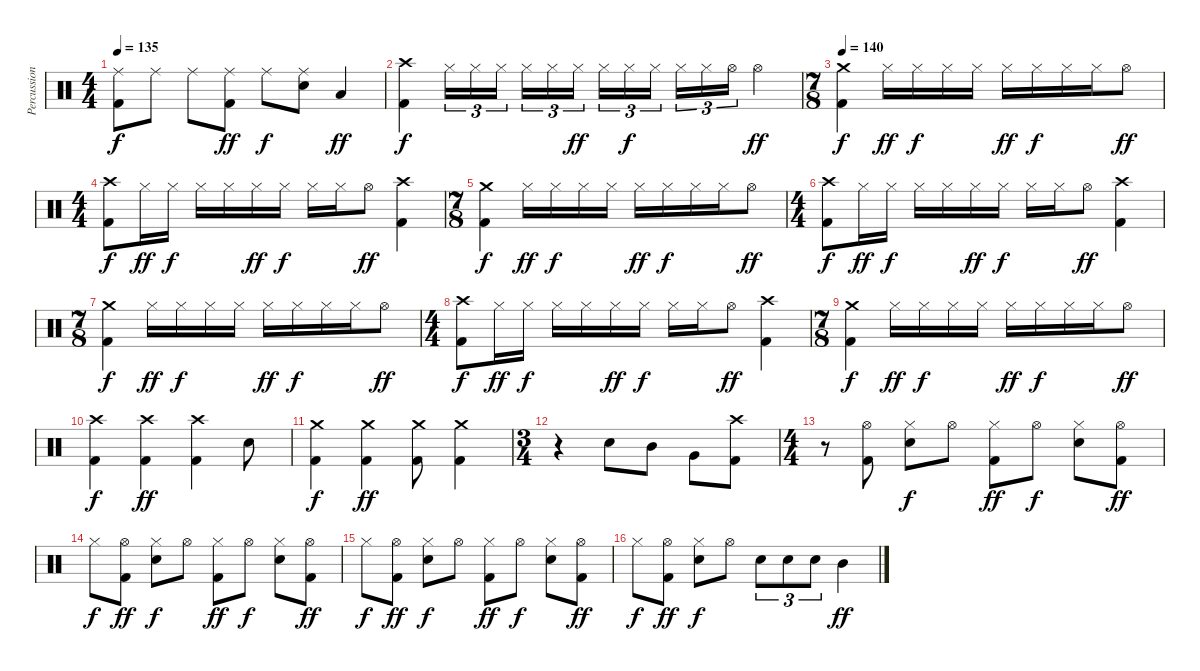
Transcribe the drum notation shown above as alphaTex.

\track ("Percussion" "Percussion") {instrument percussion}
\staff {score}
\articulation defaults
\ts (4 4)
\tempo 135
\clef neutral
\ks c
("Kick (hit) 2" "Ride (middle)").8{dy f} "Ride (middle)".8 "Ride (middle)".8 ("Kick (hit) 2" "Ride (middle)").8{dy ff} "Ride (middle)".8{dy f} ("Snare (hit) 2" "Ride (middle)").8 "Low Tom (hit)".4{dy ff} |
("Kick (hit) 2" "Crash high (hit)").4{dy f} "Hi-Hat (closed)".16{tu (3 2)} "Hi-Hat (closed)".16{tu (3 2)} "Hi-Hat (closed)".16{tu (3 2)} "Hi-Hat (closed)".16{tu (3 2)} "Hi-Hat (closed)".16{tu (3 2)} "Hi-Hat (closed)".16{tu (3 2) dy ff} "Hi-Hat (closed)".16{tu (3 2)} "Hi-Hat (closed)".16{tu (3 2) dy f} "Hi-Hat (closed)".16{tu (3 2)} "Hi-Hat (closed)".16{tu (3 2)} "Hi-Hat (closed)".16{tu (3 2)} "Hi-Hat (open)".16{tu (3 2)} "Hi-Hat (open)".4{dy ff} |
\ts (7 8)
\tempo 140
("Kick (hit) 2" "Crash medium (hit)").4{dy f} "Hi-Hat (closed)".16{dy ff} "Hi-Hat (closed)".16{dy f} "Hi-Hat (closed)".16 "Hi-Hat (closed)".16 "Hi-Hat (closed)".16{dy ff} "Hi-Hat (closed)".16{dy f} "Hi-Hat (closed)".16 "Hi-Hat (closed)".16 "Hi-Hat (open)".8{dy ff} |
\ts (4 4)
("Kick (hit) 2" "Crash high (hit)").8{dy f} "Hi-Hat (closed)".16{dy ff} "Hi-Hat (closed)".16{dy f} "Hi-Hat (closed)".16 "Hi-Hat (closed)".16 "Hi-Hat (closed)".16{dy ff} "Hi-Hat (closed)".16{dy f} "Hi-Hat (closed)".16 "Hi-Hat (closed)".16 "Hi-Hat (open)".8{dy ff} ("Kick (hit) 2" "Crash high (hit)").4 |
\ts (7 8)
("Kick (hit) 2" "Crash medium (hit)").4{dy f} "Hi-Hat (closed)".16{dy ff} "Hi-Hat (closed)".16{dy f} "Hi-Hat (closed)".16 "Hi-Hat (closed)".16 "Hi-Hat (closed)".16{dy ff} "Hi-Hat (closed)".16{dy f} "Hi-Hat (closed)".16 "Hi-Hat (closed)".16 "Hi-Hat (open)".8{dy ff} |
\ts (4 4)
("Kick (hit) 2" "Crash high (hit)").8{dy f} "Hi-Hat (closed)".16{dy ff} "Hi-Hat (closed)".16{dy f} "Hi-Hat (closed)".16 "Hi-Hat (closed)".16 "Hi-Hat (closed)".16{dy ff} "Hi-Hat (closed)".16{dy f} "Hi-Hat (closed)".16 "Hi-Hat (closed)".16 "Hi-Hat (open)".8{dy ff} ("Kick (hit) 2" "Crash high (hit)").4 |
\ts (7 8)
("Kick (hit) 2" "Crash medium (hit)").4{dy f} "Hi-Hat (closed)".16{dy ff} "Hi-Hat (closed)".16{dy f} "Hi-Hat (closed)".16 "Hi-Hat (closed)".16 "Hi-Hat (closed)".16{dy ff} "Hi-Hat (closed)".16{dy f} "Hi-Hat (closed)".16 "Hi-Hat (closed)".16 "Hi-Hat (open)".8{dy ff} |
\ts (4 4)
("Kick (hit) 2" "Crash high (hit)").8{dy f} "Hi-Hat (closed)".16{dy ff} "Hi-Hat (closed)".16{dy f} "Hi-Hat (closed)".16 "Hi-Hat (closed)".16 "Hi-Hat (closed)".16{dy ff} "Hi-Hat (closed)".16{dy f} "Hi-Hat (closed)".16 "Hi-Hat (closed)".16 "Hi-Hat (open)".8{dy ff} ("Crash high (hit)" "Kick (hit) 2").4 |
\ts (7 8)
("Kick (hit) 2" "Crash medium (hit)").4{dy f} "Hi-Hat (closed)".16{dy ff} "Hi-Hat (closed)".16{dy f} "Hi-Hat (closed)".16 "Hi-Hat (closed)".16 "Hi-Hat (closed)".16{dy ff} "Hi-Hat (closed)".16{dy f} "Hi-Hat (closed)".16 "Hi-Hat (closed)".16 "Hi-Hat (open)".8{dy ff} |
("Kick (hit) 2" "Crash high (hit)").4{dy f} ("Kick (hit) 2" "Crash high (hit)").4{dy ff} ("Kick (hit) 2" "Crash high (hit)").4 "Snare (hit) 2".8 |
("Kick (hit) 2" "Crash medium (hit)").4{dy f} ("Kick (hit) 2" "Crash medium (hit)").4{dy ff} ("Kick (hit) 2" "Crash medium (hit)").8 ("Kick (hit) 2" "Crash medium (hit)").4 |
\ts (3 4)
r.4 "Snare (hit) 2".8 "Mid Tom (hit)".8 "Very Low Tom (hit)".8 ("Kick (hit) 2" "Crash high (hit)").8 |
\ts (4 4)
r.8 ("Kick (hit) 2" "Hi-Hat (open)").8 ("Snare (hit) 2" "Hi-Hat (closed)").8{dy f} "Hi-Hat (open)".8 ("Kick (hit) 2" "Hi-Hat (closed)").8{dy ff} "Hi-Hat (open)".8{dy f} ("Snare (hit) 2" "Hi-Hat (closed)").8 ("Kick (hit) 2" "Hi-Hat (open)").8{dy ff} |
"Hi-Hat (closed)".8{dy f} ("Kick (hit) 2" "Hi-Hat (open)").8{dy ff} ("Snare (hit) 2" "Hi-Hat (closed)").8{dy f} "Hi-Hat (open)".8 ("Kick (hit) 2" "Hi-Hat (closed)").8{dy ff} "Hi-Hat (open)".8{dy f} ("Snare (hit) 2" "Hi-Hat (closed)").8 ("Kick (hit) 2" "Hi-Hat (open)").8{dy ff} |
"Hi-Hat (closed)".8{dy f} ("Kick (hit) 2" "Hi-Hat (open)").8{dy ff} ("Snare (hit) 2" "Hi-Hat (closed)").8{dy f} "Hi-Hat (open)".8 ("Kick (hit) 2" "Hi-Hat (closed)").8{dy ff} "Hi-Hat (open)".8{dy f} ("Snare (hit) 2" "Hi-Hat (closed)").8 ("Kick (hit) 2" "Hi-Hat (open)").8{dy ff} |
"Hi-Hat (closed)".8{dy f} ("Kick (hit) 2" "Hi-Hat (open)").8{dy ff} ("Snare (hit) 2" "Hi-Hat (closed)").8{dy f} "Hi-Hat (open)".8 "Snare (hit) 2".8{tu (3 2)} "Snare (hit) 2".8{tu (3 2)} "Snare (hit) 2".8{tu (3 2)} "Mid Tom (hit)".4{dy ff}
